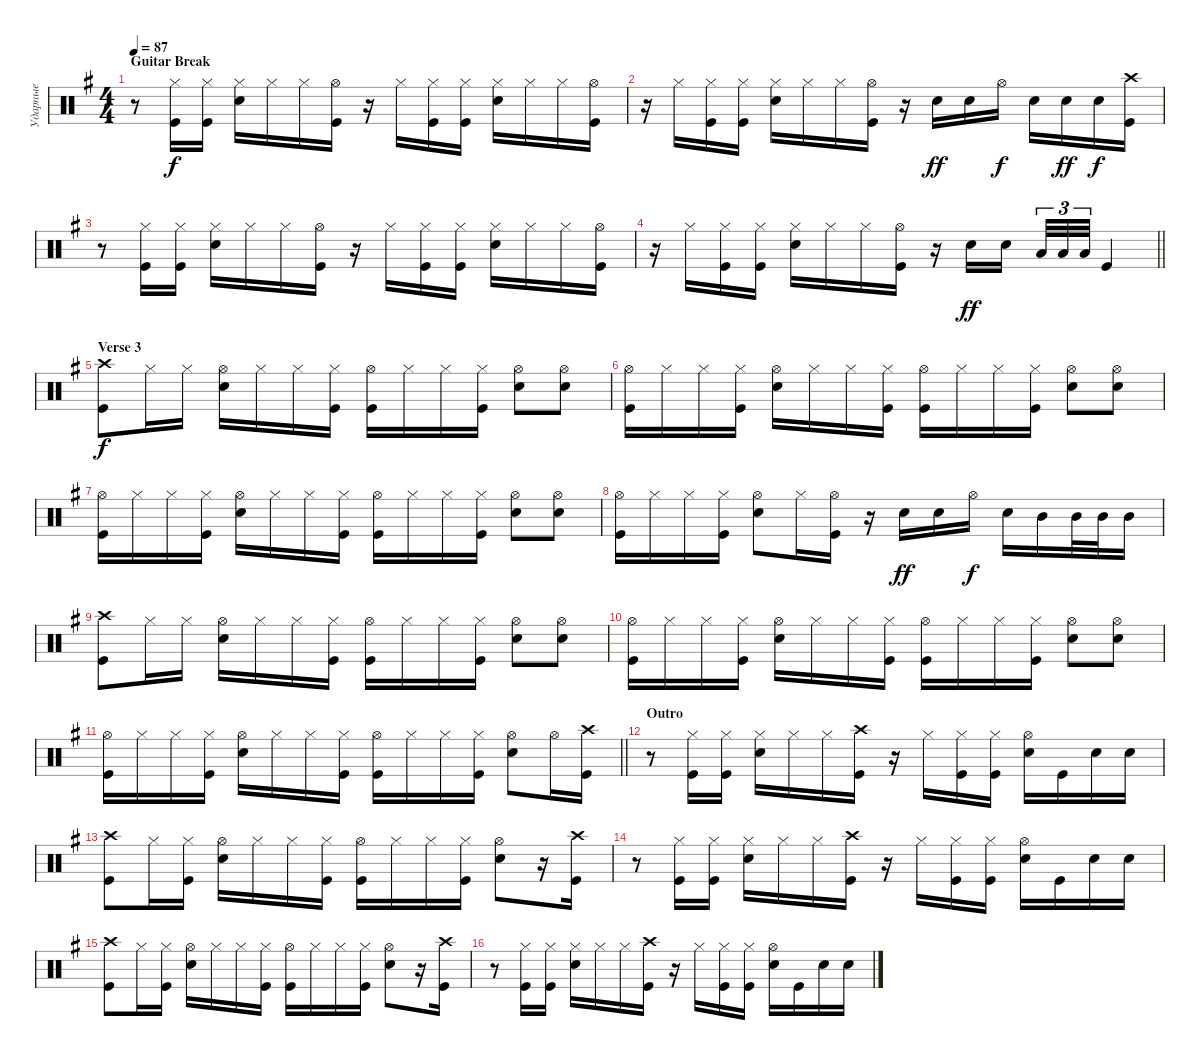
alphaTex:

\track ("Ударные" "Ударные") {instrument percussion}
\staff {score}
\articulation defaults
\ts (4 4)
\section ("" "Guitar Break")
\tempo 87
\clef neutral
\ks eminor
r.8{dy f} ("Kick (hit)" "Hi-Hat (closed)").16 ("Kick (hit)" "Hi-Hat (closed)").16 ("Snare (hit) 2" "Hi-Hat (closed)").16 "Hi-Hat (closed)".16 "Hi-Hat (closed)".16 ("Hi-Hat (open)" "Kick (hit)").16 r.16 "Hi-Hat (closed)".16 ("Hi-Hat (closed)" "Kick (hit)").16 ("Hi-Hat (closed)" "Kick (hit)").16 ("Hi-Hat (closed)" "Snare (hit) 2").16 "Hi-Hat (closed)".16 "Hi-Hat (closed)".16 ("Kick (hit)" "Hi-Hat (open)").16 |
r.16 "Hi-Hat (closed)".16 ("Hi-Hat (closed)" "Kick (hit)").16 ("Hi-Hat (closed)" "Kick (hit)").16 ("Hi-Hat (closed)" "Snare (hit) 2").16 "Hi-Hat (closed)".16 "Hi-Hat (closed)".16 ("Kick (hit)" "Hi-Hat (open)").16 r.16 "Snare (hit) 2".16{dy ff} "Snare (hit) 2".16 "Hi-Hat (open)".16{dy f} "Snare (hit) 2".16 "Snare (hit) 2".16{dy ff} "Snare (hit) 2".16{dy f} ("Kick (hit)" "Crash high (hit)").16 |
r.8 ("Kick (hit)" "Hi-Hat (closed)").16 ("Kick (hit)" "Hi-Hat (closed)").16 ("Snare (hit) 2" "Hi-Hat (closed)").16 "Hi-Hat (closed)".16 "Hi-Hat (closed)".16 ("Hi-Hat (open)" "Kick (hit)").16 r.16 "Hi-Hat (closed)".16 ("Hi-Hat (closed)" "Kick (hit)").16 ("Hi-Hat (closed)" "Kick (hit)").16 ("Hi-Hat (closed)" "Snare (hit) 2").16 "Hi-Hat (closed)".16 "Hi-Hat (closed)".16 ("Kick (hit)" "Hi-Hat (open)").16 |
\barLineRight lightlight
r.16 "Hi-Hat (closed)".16 ("Kick (hit)" "Hi-Hat (closed)").16 ("Kick (hit)" "Hi-Hat (closed)").16 ("Snare (hit) 2" "Hi-Hat (closed)").16 "Hi-Hat (closed)".16 "Hi-Hat (closed)".16 ("Hi-Hat (open)" "Kick (hit)").16 r.16 "Snare (hit) 2".16{dy ff} "Snare (hit) 2".16{beam splitsecondary} "Low Tom (hit)".32{tu (3 2)} "Low Tom (hit)".32{tu (3 2)} "Low Tom (hit)".32{tu (3 2)} "Kick (hit)".4 |
\section ("" "Verse 3")
("Kick (hit)" "Crash high (hit)").8{dy f} "Hi-Hat (closed)".16 "Hi-Hat (closed)".16 ("Snare (hit) 2" "Hi-Hat (open)").16 "Hi-Hat (closed)".16 "Hi-Hat (closed)".16 ("Hi-Hat (closed)" "Kick (hit)").16 ("Hi-Hat (open)" "Kick (hit)").16 "Hi-Hat (closed)".16 "Hi-Hat (closed)".16 ("Hi-Hat (closed)" "Kick (hit)").16 ("Hi-Hat (open)" "Snare (hit) 2").8 ("Hi-Hat (open)" "Snare (hit) 2").8 |
("Kick (hit)" "Hi-Hat (open)").16 "Hi-Hat (closed)".16 "Hi-Hat (closed)".16 ("Hi-Hat (closed)" "Kick (hit)").16 ("Snare (hit) 2" "Hi-Hat (open)").16 "Hi-Hat (closed)".16 "Hi-Hat (closed)".16 ("Hi-Hat (closed)" "Kick (hit)").16 ("Hi-Hat (open)" "Kick (hit)").16 "Hi-Hat (closed)".16 "Hi-Hat (closed)".16 ("Hi-Hat (closed)" "Kick (hit)").16 ("Hi-Hat (open)" "Snare (hit) 2").8 ("Hi-Hat (open)" "Snare (hit) 2").8 |
("Kick (hit)" "Hi-Hat (open)").16 "Hi-Hat (closed)".16 "Hi-Hat (closed)".16 ("Hi-Hat (closed)" "Kick (hit)").16 ("Snare (hit) 2" "Hi-Hat (open)").16 "Hi-Hat (closed)".16 "Hi-Hat (closed)".16 ("Hi-Hat (closed)" "Kick (hit)").16 ("Hi-Hat (open)" "Kick (hit)").16 "Hi-Hat (closed)".16 "Hi-Hat (closed)".16 ("Hi-Hat (closed)" "Kick (hit)").16 ("Hi-Hat (open)" "Snare (hit) 2").8 ("Hi-Hat (open)" "Snare (hit) 2").8 |
("Kick (hit)" "Hi-Hat (open)").16 "Hi-Hat (closed)".16 "Hi-Hat (closed)".16 ("Hi-Hat (closed)" "Kick (hit)").16 ("Snare (hit) 2" "Hi-Hat (open)").8 "Hi-Hat (closed)".16 ("Hi-Hat (open)" "Kick (hit)").16 r.16 "Snare (hit) 2".16{dy ff} "Snare (hit) 2".16 "Hi-Hat (open)".16{dy f} "Snare (hit) 2".16 "Mid Tom (hit)".16 "Mid Tom (hit)".32 "Mid Tom (hit)".32 "Mid Tom (hit)".16 |
("Kick (hit)" "Crash high (hit)").8 "Hi-Hat (closed)".16 "Hi-Hat (closed)".16 ("Snare (hit) 2" "Hi-Hat (open)").16 "Hi-Hat (closed)".16 "Hi-Hat (closed)".16 ("Hi-Hat (closed)" "Kick (hit)").16 ("Hi-Hat (open)" "Kick (hit)").16 "Hi-Hat (closed)".16 "Hi-Hat (closed)".16 ("Hi-Hat (closed)" "Kick (hit)").16 ("Hi-Hat (open)" "Snare (hit) 2").8 ("Hi-Hat (open)" "Snare (hit) 2").8 |
("Kick (hit)" "Hi-Hat (open)").16 "Hi-Hat (closed)".16 "Hi-Hat (closed)".16 ("Hi-Hat (closed)" "Kick (hit)").16 ("Snare (hit) 2" "Hi-Hat (open)").16 "Hi-Hat (closed)".16 "Hi-Hat (closed)".16 ("Hi-Hat (closed)" "Kick (hit)").16 ("Hi-Hat (open)" "Kick (hit)").16 "Hi-Hat (closed)".16 "Hi-Hat (closed)".16 ("Hi-Hat (closed)" "Kick (hit)").16 ("Hi-Hat (open)" "Snare (hit) 2").8 ("Hi-Hat (open)" "Snare (hit) 2").8 |
\barLineRight lightlight
("Kick (hit)" "Hi-Hat (open)").16 "Hi-Hat (closed)".16 "Hi-Hat (closed)".16 ("Hi-Hat (closed)" "Kick (hit)").16 ("Snare (hit) 2" "Hi-Hat (open)").16 "Hi-Hat (closed)".16 "Hi-Hat (closed)".16 ("Hi-Hat (closed)" "Kick (hit)").16 ("Hi-Hat (open)" "Kick (hit)").16 "Hi-Hat (closed)".16 "Hi-Hat (closed)".16 ("Hi-Hat (closed)" "Kick (hit)").16 ("Hi-Hat (open)" "Snare (hit) 2").8 "Hi-Hat (open)".16 ("Kick (hit)" "Crash high (hit)").16 |
\section ("" "Outro")
r.8 ("Kick (hit)" "Hi-Hat (closed)").16 ("Kick (hit)" "Hi-Hat (closed)").16 ("Snare (hit) 2" "Hi-Hat (closed)").16 "Hi-Hat (closed)".16 "Hi-Hat (closed)".16 ("Crash high (hit)" "Kick (hit)").16 r.16 "Hi-Hat (closed)".16 ("Hi-Hat (closed)" "Kick (hit)").16 ("Hi-Hat (closed)" "Kick (hit)").16 ("Hi-Hat (open)" "Snare (hit) 2").16 "Kick (hit)".16 "Snare (hit) 2".16 "Snare (hit) 2".16 |
("Kick (hit)" "Crash high (hit)").8 "Hi-Hat (closed)".16 ("Hi-Hat (closed)" "Kick (hit)").16 ("Snare (hit) 2" "Hi-Hat (open)").16 "Hi-Hat (closed)".16 "Hi-Hat (closed)".16 ("Hi-Hat (closed)" "Kick (hit)").16 ("Hi-Hat (open)" "Kick (hit)").16 "Hi-Hat (closed)".16 "Hi-Hat (closed)".16 ("Hi-Hat (closed)" "Kick (hit)").16 ("Hi-Hat (open)" "Snare (hit) 2").8 r.16 ("Kick (hit)" "Crash high (hit)").16 |
r.8 ("Kick (hit)" "Hi-Hat (closed)").16 ("Kick (hit)" "Hi-Hat (closed)").16 ("Snare (hit) 2" "Hi-Hat (closed)").16 "Hi-Hat (closed)".16 "Hi-Hat (closed)".16 ("Crash high (hit)" "Kick (hit)").16 r.16 "Hi-Hat (closed)".16 ("Hi-Hat (closed)" "Kick (hit)").16 ("Hi-Hat (closed)" "Kick (hit)").16 ("Hi-Hat (open)" "Snare (hit) 2").16 "Kick (hit)".16 "Snare (hit) 2".16 "Snare (hit) 2".16 |
("Kick (hit)" "Crash high (hit)").8 "Hi-Hat (closed)".16 ("Hi-Hat (closed)" "Kick (hit)").16 ("Snare (hit) 2" "Hi-Hat (open)").16 "Hi-Hat (closed)".16 "Hi-Hat (closed)".16 ("Hi-Hat (closed)" "Kick (hit)").16 ("Hi-Hat (open)" "Kick (hit)").16 "Hi-Hat (closed)".16 "Hi-Hat (closed)".16 ("Hi-Hat (closed)" "Kick (hit)").16 ("Hi-Hat (open)" "Snare (hit) 2").8 r.16 ("Kick (hit)" "Crash high (hit)").16 |
r.8 ("Kick (hit)" "Hi-Hat (closed)").16 ("Kick (hit)" "Hi-Hat (closed)").16 ("Snare (hit) 2" "Hi-Hat (closed)").16 "Hi-Hat (closed)".16 "Hi-Hat (closed)".16 ("Crash high (hit)" "Kick (hit)").16 r.16 "Hi-Hat (closed)".16 ("Hi-Hat (closed)" "Kick (hit)").16 ("Hi-Hat (closed)" "Kick (hit)").16 ("Hi-Hat (open)" "Snare (hit) 2").16 "Kick (hit)".16 "Snare (hit) 2".16 "Snare (hit) 2".16
